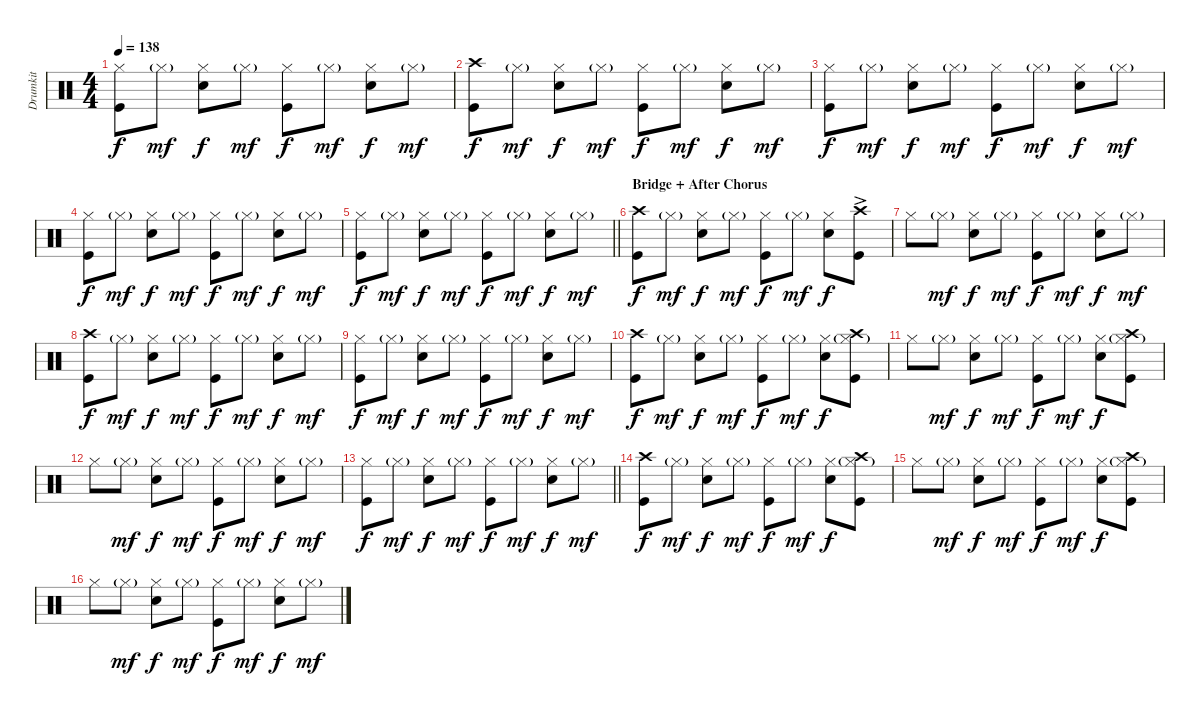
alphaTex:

\track ("Drumkit" "Drumkit") {instrument percussion}
\staff {score}
\articulation defaults
\ts (4 4)
\tempo 138
\clef neutral
\ks c
("Hi-Hat (closed)" "Kick (hit)").8{dy f} "Hi-Hat (closed)"{g}.8{dy mf} ("Hi-Hat (closed)" "Snare (hit) 2").8{dy f} "Hi-Hat (closed)"{g}.8{dy mf} ("Hi-Hat (closed)" "Kick (hit)").8{dy f} "Hi-Hat (closed)"{g}.8{dy mf} ("Hi-Hat (closed)" "Snare (hit) 2").8{dy f} "Hi-Hat (closed)"{g}.8{dy mf} |
("Crash high (hit)" "Kick (hit)").8{dy f} "Hi-Hat (closed)"{g}.8{dy mf} ("Hi-Hat (closed)" "Snare (hit) 2").8{dy f} "Hi-Hat (closed)"{g}.8{dy mf} ("Hi-Hat (closed)" "Kick (hit)").8{dy f} "Hi-Hat (closed)"{g}.8{dy mf} ("Hi-Hat (closed)" "Snare (hit) 2").8{dy f} "Hi-Hat (closed)"{g}.8{dy mf} |
("Hi-Hat (closed)" "Kick (hit)").8{dy f} "Hi-Hat (closed)"{g}.8{dy mf} ("Hi-Hat (closed)" "Snare (hit) 2").8{dy f} "Hi-Hat (closed)"{g}.8{dy mf} ("Hi-Hat (closed)" "Kick (hit)").8{dy f} "Hi-Hat (closed)"{g}.8{dy mf} ("Hi-Hat (closed)" "Snare (hit) 2").8{dy f} "Hi-Hat (closed)"{g}.8{dy mf} |
("Hi-Hat (closed)" "Kick (hit)").8{dy f} "Hi-Hat (closed)"{g}.8{dy mf} ("Hi-Hat (closed)" "Snare (hit) 2").8{dy f} "Hi-Hat (closed)"{g}.8{dy mf} ("Hi-Hat (closed)" "Kick (hit)").8{dy f} "Hi-Hat (closed)"{g}.8{dy mf} ("Hi-Hat (closed)" "Snare (hit) 2").8{dy f} "Hi-Hat (closed)"{g}.8{dy mf} |
\barLineRight lightlight
("Hi-Hat (closed)" "Kick (hit)").8{dy f} "Hi-Hat (closed)"{g}.8{dy mf} ("Hi-Hat (closed)" "Snare (hit) 2").8{dy f} "Hi-Hat (closed)"{g}.8{dy mf} ("Hi-Hat (closed)" "Kick (hit)").8{dy f} "Hi-Hat (closed)"{g}.8{dy mf} ("Hi-Hat (closed)" "Snare (hit) 2").8{dy f} "Hi-Hat (closed)"{g}.8{dy mf} |
\section ("" "Bridge + After Chorus")
("Crash high (hit)" "Kick (hit)").8{dy f} "Hi-Hat (closed)"{g}.8{dy mf} ("Hi-Hat (closed)" "Snare (hit) 2").8{dy f} "Hi-Hat (closed)"{g}.8{dy mf} ("Hi-Hat (closed)" "Kick (hit)").8{dy f} "Hi-Hat (closed)"{g}.8{dy mf} ("Hi-Hat (closed)" "Snare (hit) 2").8{dy f} ("Crash high (hit)"{ac} "Kick (hit)").8 |
"Hi-Hat (closed)".8 "Hi-Hat (closed)"{g}.8{dy mf} ("Hi-Hat (closed)" "Snare (hit) 2").8{dy f} "Hi-Hat (closed)"{g}.8{dy mf} ("Hi-Hat (closed)" "Kick (hit)").8{dy f} "Hi-Hat (closed)"{g}.8{dy mf} ("Hi-Hat (closed)" "Snare (hit) 2").8{dy f} "Hi-Hat (closed)"{g}.8{dy mf} |
("Crash high (hit)" "Kick (hit)").8{dy f} "Hi-Hat (closed)"{g}.8{dy mf} ("Hi-Hat (closed)" "Snare (hit) 2").8{dy f} "Hi-Hat (closed)"{g}.8{dy mf} ("Hi-Hat (closed)" "Kick (hit)").8{dy f} "Hi-Hat (closed)"{g}.8{dy mf} ("Hi-Hat (closed)" "Snare (hit) 2").8{dy f} "Hi-Hat (closed)"{g}.8{dy mf} |
("Hi-Hat (closed)" "Kick (hit)").8{dy f} "Hi-Hat (closed)"{g}.8{dy mf} ("Hi-Hat (closed)" "Snare (hit) 2").8{dy f} "Hi-Hat (closed)"{g}.8{dy mf} ("Hi-Hat (closed)" "Kick (hit)").8{dy f} "Hi-Hat (closed)"{g}.8{dy mf} ("Hi-Hat (closed)" "Snare (hit) 2").8{dy f} "Hi-Hat (closed)"{g}.8{dy mf} |
("Crash high (hit)" "Kick (hit)").8{dy f} "Hi-Hat (closed)"{g}.8{dy mf} ("Hi-Hat (closed)" "Snare (hit) 2").8{dy f} "Hi-Hat (closed)"{g}.8{dy mf} ("Hi-Hat (closed)" "Kick (hit)").8{dy f} "Hi-Hat (closed)"{g}.8{dy mf} ("Hi-Hat (closed)" "Snare (hit) 2").8{dy f} ("Crash high (hit)" "Hi-Hat (closed)"{g} "Kick (hit)").8 |
"Hi-Hat (closed)".8 "Hi-Hat (closed)"{g}.8{dy mf} ("Hi-Hat (closed)" "Snare (hit) 2").8{dy f} "Hi-Hat (closed)"{g}.8{dy mf} ("Hi-Hat (closed)" "Kick (hit)").8{dy f} "Hi-Hat (closed)"{g}.8{dy mf} ("Hi-Hat (closed)" "Snare (hit) 2").8{dy f} ("Crash high (hit)" "Hi-Hat (closed)"{g} "Kick (hit)").8 |
"Hi-Hat (closed)".8 "Hi-Hat (closed)"{g}.8{dy mf} ("Hi-Hat (closed)" "Snare (hit) 2").8{dy f} "Hi-Hat (closed)"{g}.8{dy mf} ("Hi-Hat (closed)" "Kick (hit)").8{dy f} "Hi-Hat (closed)"{g}.8{dy mf} ("Hi-Hat (closed)" "Snare (hit) 2").8{dy f} "Hi-Hat (closed)"{g}.8{dy mf} |
\barLineRight lightlight
("Hi-Hat (closed)" "Kick (hit)").8{dy f} "Hi-Hat (closed)"{g}.8{dy mf} ("Hi-Hat (closed)" "Snare (hit) 2").8{dy f} "Hi-Hat (closed)"{g}.8{dy mf} ("Hi-Hat (closed)" "Kick (hit)").8{dy f} "Hi-Hat (closed)"{g}.8{dy mf} ("Hi-Hat (closed)" "Snare (hit) 2").8{dy f} "Hi-Hat (closed)"{g}.8{dy mf} |
("Crash high (hit)" "Kick (hit)").8{dy f} "Hi-Hat (closed)"{g}.8{dy mf} ("Hi-Hat (closed)" "Snare (hit) 2").8{dy f} "Hi-Hat (closed)"{g}.8{dy mf} ("Hi-Hat (closed)" "Kick (hit)").8{dy f} "Hi-Hat (closed)"{g}.8{dy mf} ("Hi-Hat (closed)" "Snare (hit) 2").8{dy f} ("Crash high (hit)" "Hi-Hat (closed)"{g} "Kick (hit)").8 |
"Hi-Hat (closed)".8 "Hi-Hat (closed)"{g}.8{dy mf} ("Hi-Hat (closed)" "Snare (hit) 2").8{dy f} "Hi-Hat (closed)"{g}.8{dy mf} ("Hi-Hat (closed)" "Kick (hit)").8{dy f} "Hi-Hat (closed)"{g}.8{dy mf} ("Hi-Hat (closed)" "Snare (hit) 2").8{dy f} ("Crash high (hit)" "Hi-Hat (closed)"{g} "Kick (hit)").8 |
"Hi-Hat (closed)".8 "Hi-Hat (closed)"{g}.8{dy mf} ("Hi-Hat (closed)" "Snare (hit) 2").8{dy f} "Hi-Hat (closed)"{g}.8{dy mf} ("Hi-Hat (closed)" "Kick (hit)").8{dy f} "Hi-Hat (closed)"{g}.8{dy mf} ("Hi-Hat (closed)" "Snare (hit) 2").8{dy f} "Hi-Hat (closed)"{g}.8{dy mf}
